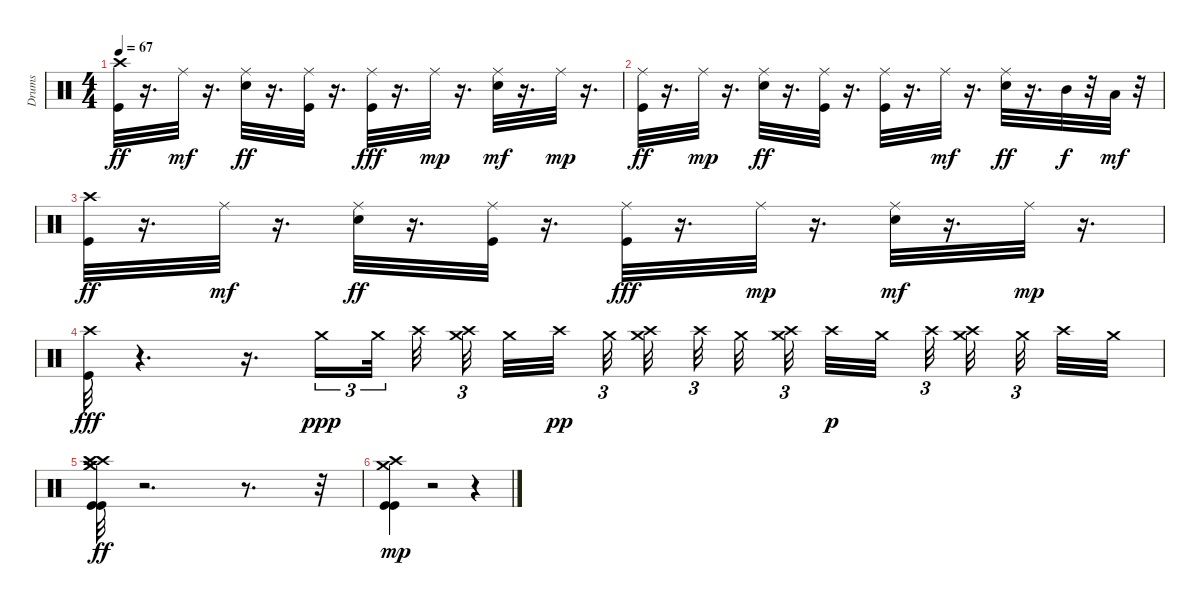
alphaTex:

\track ("Drums" "Drums") {instrument percussion}
\staff {score}
\articulation defaults
\ts (4 4)
\tempo 67
\clef neutral
\ks c
("Crash high (hit)" "Kick (hit)").32{dy ff} r.16{d} "Ride (middle)".32{dy mf} r.16{d} ("Ride (middle)" "Electric Snare (hit)").32{dy ff} r.16{d} ("Ride (middle)" "Kick (hit)").32 r.16{d} ("Ride (middle)" "Kick (hit)").32{dy fff} r.16{d} "Ride (middle)".32{dy mp} r.16{d} ("Ride (middle)" "Electric Snare (hit)").32{dy mf} r.16{d} "Ride (middle)".32{dy mp} r.16{d} |
("Ride (middle)" "Kick (hit)").32{dy ff} r.16{d} "Ride (middle)".32{dy mp} r.16{d} ("Ride (middle)" "Electric Snare (hit)").32{dy ff} r.16{d} ("Ride (middle)" "Kick (hit)").32 r.16{d} ("Ride (middle)" "Kick (hit)").32 r.16{d} "Ride (middle)".32{dy mf} r.16{d} ("Ride (middle)" "Electric Snare (hit)").32{dy ff} r.16{d} "Mid Tom (hit)".32{dy f} r.32 "Low Tom (hit)".32{dy mf} r.32 |
("Crash high (hit)" "Kick (hit)").32{dy ff} r.16{d} "Ride (middle)".32{dy mf} r.16{d} ("Ride (middle)" "Electric Snare (hit)").32{dy ff} r.16{d} ("Ride (middle)" "Kick (hit)").32 r.16{d} ("Ride (middle)" "Kick (hit)").32{dy fff} r.16{d} "Ride (middle)".32{dy mp} r.16{d} ("Ride (middle)" "Electric Snare (hit)").32{dy mf} r.16{d} "Ride (middle)".32{dy mp} r.16{d} |
("Crash high (hit)" "Kick (hit)").32{dy fff} r.4{d} r.16{d} "Crash medium (hit)".16{tu (3 2) dy ppp} "Crash medium (hit)".32{tu (3 2)} "Crash high (hit)".32 ("Crash medium (hit)" "Crash high (hit)").32{tu (3 2)} "Crash medium (hit)".32 "Crash high (hit)".32{dy pp} "Crash medium (hit)".32{tu (3 2)} ("Crash high (hit)" "Crash medium (hit)").32 "Crash high (hit)".32{tu (3 2)} "Crash medium (hit)".32 ("Crash high (hit)" "Crash medium (hit)").32{tu (3 2)} "Crash high (hit)".32{dy p} "Crash medium (hit)".32 "Crash high (hit)".32{tu (3 2)} ("Crash medium (hit)" "Crash high (hit)").32 "Crash medium (hit)".32{tu (3 2)} "Crash high (hit)".32 "Crash medium (hit)".32 |
("Crash medium (hit)" "Crash high (hit)" "Crash medium (hit)" "Kick (hit)" "Crash high (hit)" "Kick (hit)").32{dy ff} r.2{d} r.8{d} r.32 |
("Kick (hit)" "Crash high (hit)" "Crash medium (hit)" "Kick (hit)").4{dy mp} r.2 r.4
